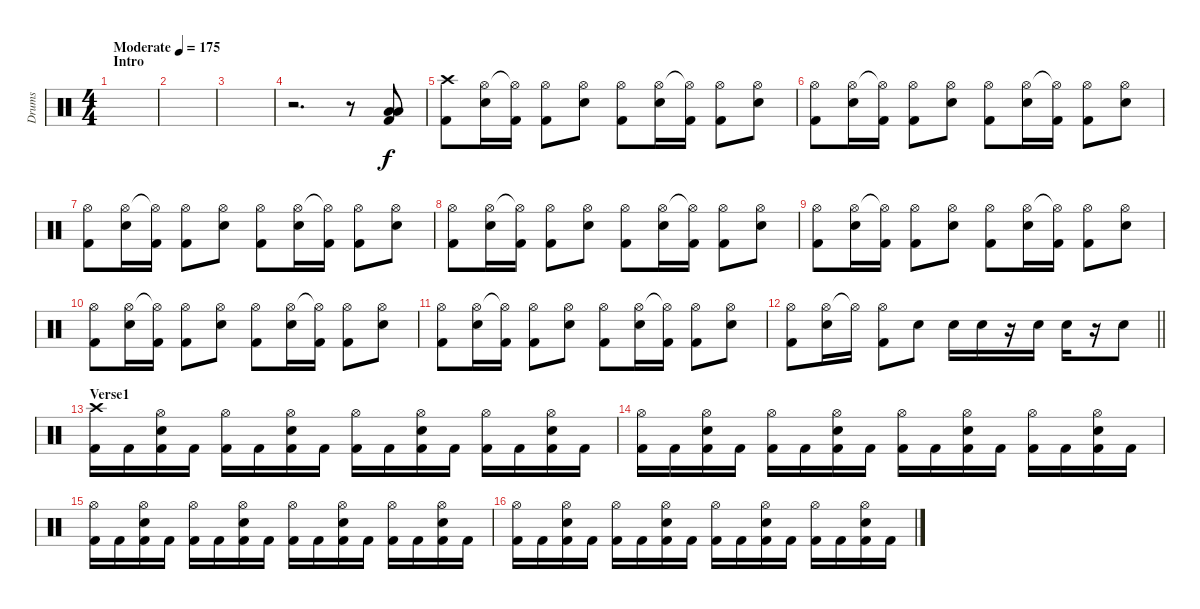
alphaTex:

\track ("Drums" "Drums") {instrument percussion}
\staff {score}
\articulation defaults
\ts (4 4)
\section ("" "Intro")
\tempo (175 "Moderate")
\clef neutral
\ks c
|
|
|
r.2{d} r.8 ("Low Tom (hit)" "Low Floor Tom (hit)" "Kick (hit) 2").8 |
("Crash high (hit)" "Kick (hit) 2").8 ("Hi-Hat (open)" "Electric Snare (hit)").16 ("Hi-Hat (open)"{t} "Kick (hit) 2").16 ("Hi-Hat (open)" "Kick (hit) 2").8 ("Hi-Hat (open)" "Electric Snare (hit)").8 ("Hi-Hat (open)" "Kick (hit) 2").8 ("Hi-Hat (open)" "Electric Snare (hit)").16 ("Hi-Hat (open)"{t} "Kick (hit) 2").16 ("Hi-Hat (open)" "Kick (hit) 2").8 ("Hi-Hat (open)" "Electric Snare (hit)").8 |
("Hi-Hat (open)" "Kick (hit) 2").8 ("Hi-Hat (open)" "Electric Snare (hit)").16 ("Hi-Hat (open)"{t} "Kick (hit) 2").16 ("Hi-Hat (open)" "Kick (hit) 2").8 ("Hi-Hat (open)" "Electric Snare (hit)").8 ("Hi-Hat (open)" "Kick (hit) 2").8 ("Hi-Hat (open)" "Electric Snare (hit)").16 ("Hi-Hat (open)"{t} "Kick (hit) 2").16 ("Hi-Hat (open)" "Kick (hit) 2").8 ("Hi-Hat (open)" "Electric Snare (hit)").8 |
("Hi-Hat (open)" "Kick (hit) 2").8 ("Hi-Hat (open)" "Electric Snare (hit)").16 ("Hi-Hat (open)"{t} "Kick (hit) 2").16 ("Hi-Hat (open)" "Kick (hit) 2").8 ("Hi-Hat (open)" "Electric Snare (hit)").8 ("Hi-Hat (open)" "Kick (hit) 2").8 ("Hi-Hat (open)" "Electric Snare (hit)").16 ("Hi-Hat (open)"{t} "Kick (hit) 2").16 ("Hi-Hat (open)" "Kick (hit) 2").8 ("Hi-Hat (open)" "Electric Snare (hit)").8 |
("Hi-Hat (open)" "Kick (hit) 2").8 ("Hi-Hat (open)" "Electric Snare (hit)").16 ("Hi-Hat (open)"{t} "Kick (hit) 2").16 ("Hi-Hat (open)" "Kick (hit) 2").8 ("Hi-Hat (open)" "Electric Snare (hit)").8 ("Hi-Hat (open)" "Kick (hit) 2").8 ("Hi-Hat (open)" "Electric Snare (hit)").16 ("Hi-Hat (open)"{t} "Kick (hit) 2").16 ("Hi-Hat (open)" "Kick (hit) 2").8 ("Hi-Hat (open)" "Electric Snare (hit)").8 |
("Hi-Hat (open)" "Kick (hit) 2").8 ("Hi-Hat (open)" "Electric Snare (hit)").16 ("Hi-Hat (open)"{t} "Kick (hit) 2").16 ("Hi-Hat (open)" "Kick (hit) 2").8 ("Hi-Hat (open)" "Electric Snare (hit)").8 ("Hi-Hat (open)" "Kick (hit) 2").8 ("Hi-Hat (open)" "Electric Snare (hit)").16 ("Hi-Hat (open)"{t} "Kick (hit) 2").16 ("Hi-Hat (open)" "Kick (hit) 2").8 ("Hi-Hat (open)" "Electric Snare (hit)").8 |
("Hi-Hat (open)" "Kick (hit) 2").8 ("Hi-Hat (open)" "Electric Snare (hit)").16 ("Hi-Hat (open)"{t} "Kick (hit) 2").16 ("Hi-Hat (open)" "Kick (hit) 2").8 ("Hi-Hat (open)" "Electric Snare (hit)").8 ("Hi-Hat (open)" "Kick (hit) 2").8 ("Hi-Hat (open)" "Electric Snare (hit)").16 ("Hi-Hat (open)"{t} "Kick (hit) 2").16 ("Hi-Hat (open)" "Kick (hit) 2").8 ("Hi-Hat (open)" "Electric Snare (hit)").8 |
("Hi-Hat (open)" "Kick (hit) 2").8 ("Hi-Hat (open)" "Electric Snare (hit)").16 ("Hi-Hat (open)"{t} "Kick (hit) 2").16 ("Hi-Hat (open)" "Kick (hit) 2").8 ("Hi-Hat (open)" "Electric Snare (hit)").8 ("Hi-Hat (open)" "Kick (hit) 2").8 ("Hi-Hat (open)" "Electric Snare (hit)").16 ("Hi-Hat (open)"{t} "Kick (hit) 2").16 ("Hi-Hat (open)" "Kick (hit) 2").8 ("Hi-Hat (open)" "Electric Snare (hit)").8 |
\barLineRight lightlight
("Hi-Hat (open)" "Kick (hit) 2").8 ("Hi-Hat (open)" "Electric Snare (hit)").16 "Hi-Hat (open)"{t}.16 ("Hi-Hat (open)" "Kick (hit) 2").8 "Electric Snare (hit)".8 "Electric Snare (hit)".16 "Electric Snare (hit)".16 r.16 "Electric Snare (hit)".16 "Electric Snare (hit)".16 r.16 "Electric Snare (hit)".8 |
\section ("" "Verse1")
("Crash high (hit)" "Kick (hit) 2").16 "Kick (hit) 2".16 ("Hi-Hat (open)" "Electric Snare (hit)" "Kick (hit) 2").16 "Kick (hit) 2".16 ("Hi-Hat (open)" "Kick (hit) 2").16 "Kick (hit) 2".16 ("Hi-Hat (open)" "Electric Snare (hit)" "Kick (hit) 2").16 "Kick (hit) 2".16 ("Hi-Hat (open)" "Kick (hit) 2").16 "Kick (hit) 2".16 ("Hi-Hat (open)" "Electric Snare (hit)" "Kick (hit) 2").16 "Kick (hit) 2".16 ("Hi-Hat (open)" "Kick (hit) 2").16 "Kick (hit) 2".16 ("Hi-Hat (open)" "Electric Snare (hit)" "Kick (hit) 2").16 "Kick (hit) 2".16 |
("Hi-Hat (open)" "Kick (hit) 2").16 "Kick (hit) 2".16 ("Hi-Hat (open)" "Electric Snare (hit)" "Kick (hit) 2").16 "Kick (hit) 2".16 ("Hi-Hat (open)" "Kick (hit) 2").16 "Kick (hit) 2".16 ("Hi-Hat (open)" "Electric Snare (hit)" "Kick (hit) 2").16 "Kick (hit) 2".16 ("Hi-Hat (open)" "Kick (hit) 2").16 "Kick (hit) 2".16 ("Hi-Hat (open)" "Electric Snare (hit)" "Kick (hit) 2").16 "Kick (hit) 2".16 ("Hi-Hat (open)" "Kick (hit) 2").16 "Kick (hit) 2".16 ("Hi-Hat (open)" "Electric Snare (hit)" "Kick (hit) 2").16 "Kick (hit) 2".16 |
("Hi-Hat (open)" "Kick (hit) 2").16 "Kick (hit) 2".16 ("Hi-Hat (open)" "Electric Snare (hit)" "Kick (hit) 2").16 "Kick (hit) 2".16 ("Hi-Hat (open)" "Kick (hit) 2").16 "Kick (hit) 2".16 ("Hi-Hat (open)" "Electric Snare (hit)" "Kick (hit) 2").16 "Kick (hit) 2".16 ("Hi-Hat (open)" "Kick (hit) 2").16 "Kick (hit) 2".16 ("Hi-Hat (open)" "Electric Snare (hit)" "Kick (hit) 2").16 "Kick (hit) 2".16 ("Hi-Hat (open)" "Kick (hit) 2").16 "Kick (hit) 2".16 ("Hi-Hat (open)" "Electric Snare (hit)" "Kick (hit) 2").16 "Kick (hit) 2".16 |
("Hi-Hat (open)" "Kick (hit) 2").16 "Kick (hit) 2".16 ("Hi-Hat (open)" "Electric Snare (hit)" "Kick (hit) 2").16 "Kick (hit) 2".16 ("Hi-Hat (open)" "Kick (hit) 2").16 "Kick (hit) 2".16 ("Hi-Hat (open)" "Electric Snare (hit)" "Kick (hit) 2").16 "Kick (hit) 2".16 ("Hi-Hat (open)" "Kick (hit) 2").16 "Kick (hit) 2".16 ("Hi-Hat (open)" "Electric Snare (hit)" "Kick (hit) 2").16 "Kick (hit) 2".16 ("Hi-Hat (open)" "Kick (hit) 2").16 "Kick (hit) 2".16 ("Hi-Hat (open)" "Electric Snare (hit)" "Kick (hit) 2").16 "Kick (hit) 2".16
